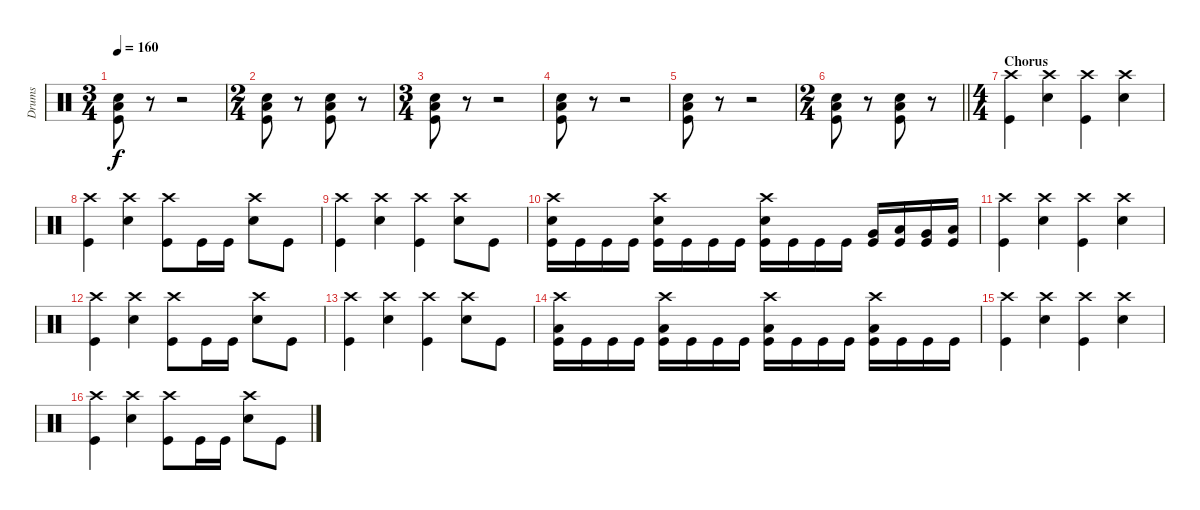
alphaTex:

\track ("Drums" "Drums") {instrument percussion}
\staff {score}
\articulation defaults
\ts (3 4)
\tempo 160
\clef neutral
\ks c
("Snare (hit) 2" "Kick (hit)" "Low Floor Tom (hit)").8{dy f} r.8 r.2 |
\ts (2 4)
("Snare (hit) 2" "Kick (hit)" "Low Floor Tom (hit)").8 r.8 ("Snare (hit) 2" "Kick (hit)" "Low Floor Tom (hit)").8 r.8 |
\ts (3 4)
("Snare (hit) 2" "Kick (hit)" "Low Floor Tom (hit)").8 r.8 r.2 |
("Snare (hit) 2" "Kick (hit)" "Low Floor Tom (hit)").8 r.8 r.2 |
("Snare (hit) 2" "Kick (hit)" "Low Floor Tom (hit)").8 r.8 r.2 |
\ts (2 4)
\barLineRight lightlight
("Snare (hit) 2" "Kick (hit)" "Low Floor Tom (hit)").8 r.8 ("Snare (hit) 2" "Kick (hit)" "Low Floor Tom (hit)").8 r.8 |
\ts (4 4)
\section ("" "Chorus")
("Kick (hit)" "Crash high (hit)").4 ("Snare (hit) 2" "Crash high (hit)").4 ("Kick (hit)" "Crash high (hit)").4 ("Snare (hit) 2" "Crash high (hit)").4 |
("Kick (hit)" "Crash high (hit)").4 ("Snare (hit) 2" "Crash high (hit)").4 ("Kick (hit)" "Crash high (hit)").8 "Kick (hit)".16 "Kick (hit)".16 ("Snare (hit) 2" "Crash high (hit)").8 "Kick (hit)".8 |
("Kick (hit)" "Crash high (hit)").4 ("Snare (hit) 2" "Crash high (hit)").4 ("Kick (hit)" "Crash high (hit)").4 ("Snare (hit) 2" "Crash high (hit)").8 "Kick (hit)".8 |
("Kick (hit)" "Snare (hit) 2" "Crash high (hit)").16 "Kick (hit)".16 "Kick (hit)".16 "Kick (hit)".16 ("Kick (hit)" "Snare (hit) 2" "Crash high (hit)").16 "Kick (hit)".16 "Kick (hit)".16 "Kick (hit)".16 ("Kick (hit)" "Snare (hit) 2" "Crash high (hit)").16 "Kick (hit)".16 "Kick (hit)".16 "Kick (hit)".16 ("Kick (hit)" "Very Low Tom (hit)").16 ("Low Floor Tom (hit)" "Kick (hit)").16 ("Kick (hit)" "Very Low Tom (hit)").16 ("Kick (hit)" "Low Floor Tom (hit)").16 |
("Kick (hit)" "Crash high (hit)").4 ("Snare (hit) 2" "Crash high (hit)").4 ("Kick (hit)" "Crash high (hit)").4 ("Snare (hit) 2" "Crash high (hit)").4 |
("Kick (hit)" "Crash high (hit)").4 ("Snare (hit) 2" "Crash high (hit)").4 ("Kick (hit)" "Crash high (hit)").8 "Kick (hit)".16 "Kick (hit)".16 ("Snare (hit) 2" "Crash high (hit)").8 "Kick (hit)".8 |
("Kick (hit)" "Crash high (hit)").4 ("Snare (hit) 2" "Crash high (hit)").4 ("Kick (hit)" "Crash high (hit)").4 ("Snare (hit) 2" "Crash high (hit)").8 "Kick (hit)".8 |
("Kick (hit)" "Low Floor Tom (hit)" "Crash high (hit)").16 "Kick (hit)".16 "Kick (hit)".16 "Kick (hit)".16 ("Kick (hit)" "Low Floor Tom (hit)" "Crash high (hit)").16 "Kick (hit)".16 "Kick (hit)".16 "Kick (hit)".16 ("Kick (hit)" "Low Floor Tom (hit)" "Crash high (hit)").16 "Kick (hit)".16 "Kick (hit)".16 "Kick (hit)".16 ("Kick (hit)" "Low Floor Tom (hit)" "Crash high (hit)").16 "Kick (hit)".16 "Kick (hit)".16 "Kick (hit)".16 |
("Kick (hit)" "Crash high (hit)").4 ("Snare (hit) 2" "Crash high (hit)").4 ("Kick (hit)" "Crash high (hit)").4 ("Snare (hit) 2" "Crash high (hit)").4 |
("Kick (hit)" "Crash high (hit)").4 ("Snare (hit) 2" "Crash high (hit)").4 ("Kick (hit)" "Crash high (hit)").8 "Kick (hit)".16 "Kick (hit)".16 ("Snare (hit) 2" "Crash high (hit)").8 "Kick (hit)".8
